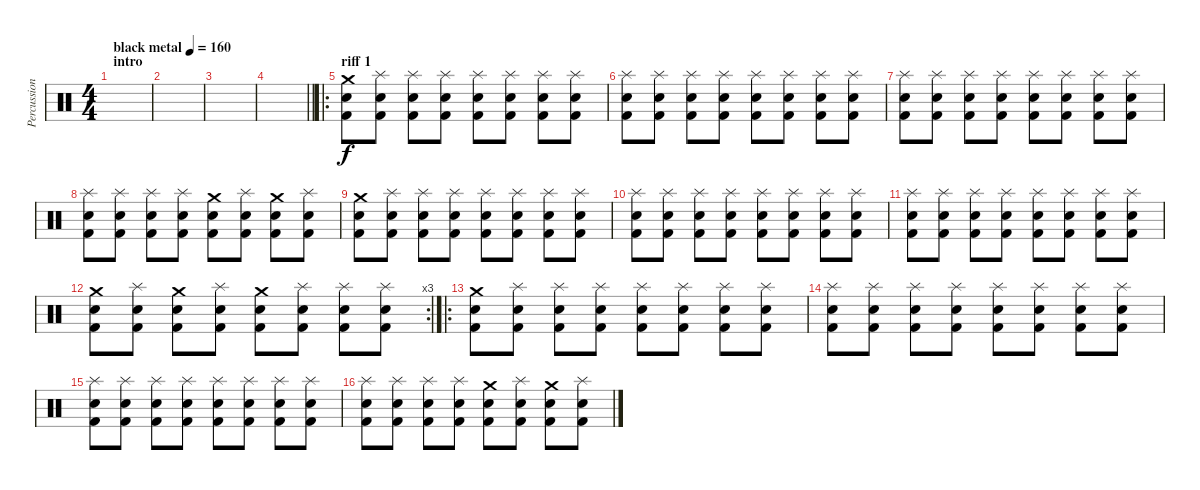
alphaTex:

\track ("Percussions" "Percussion") {instrument percussion}
\staff {score}
\articulation defaults
\ts (4 4)
\section ("" "intro")
\tempo (160 "black metal")
\clef neutral
\ks c
|
|
|
\barLineRight lightlight
|
\ro
\section ("" "riff 1")
("Crash medium (hit)" "Electric Snare (hit)" "Kick (hit) 2").8 ("Splash (hit)" "Electric Snare (hit)" "Kick (hit) 2").8 ("Splash (hit)" "Electric Snare (hit)" "Kick (hit) 2").8 ("Splash (hit)" "Electric Snare (hit)" "Kick (hit) 2").8 ("Splash (hit)" "Electric Snare (hit)" "Kick (hit) 2").8 ("Splash (hit)" "Electric Snare (hit)" "Kick (hit) 2").8 ("Splash (hit)" "Electric Snare (hit)" "Kick (hit) 2").8 ("Splash (hit)" "Electric Snare (hit)" "Kick (hit) 2").8 |
("Splash (hit)" "Electric Snare (hit)" "Kick (hit) 2").8 ("Splash (hit)" "Electric Snare (hit)" "Kick (hit) 2").8 ("Splash (hit)" "Electric Snare (hit)" "Kick (hit) 2").8 ("Splash (hit)" "Electric Snare (hit)" "Kick (hit) 2").8 ("Splash (hit)" "Electric Snare (hit)" "Kick (hit) 2").8 ("Splash (hit)" "Electric Snare (hit)" "Kick (hit) 2").8 ("Splash (hit)" "Electric Snare (hit)" "Kick (hit) 2").8 ("Splash (hit)" "Electric Snare (hit)" "Kick (hit) 2").8 |
("Splash (hit)" "Electric Snare (hit)" "Kick (hit) 2").8 ("Splash (hit)" "Electric Snare (hit)" "Kick (hit) 2").8 ("Splash (hit)" "Electric Snare (hit)" "Kick (hit) 2").8 ("Splash (hit)" "Electric Snare (hit)" "Kick (hit) 2").8 ("Splash (hit)" "Electric Snare (hit)" "Kick (hit) 2").8 ("Splash (hit)" "Electric Snare (hit)" "Kick (hit) 2").8 ("Splash (hit)" "Electric Snare (hit)" "Kick (hit) 2").8 ("Splash (hit)" "Electric Snare (hit)" "Kick (hit) 2").8 |
("Splash (hit)" "Electric Snare (hit)" "Kick (hit) 2").8 ("Splash (hit)" "Electric Snare (hit)" "Kick (hit) 2").8 ("Splash (hit)" "Electric Snare (hit)" "Kick (hit) 2").8 ("Splash (hit)" "Electric Snare (hit)" "Kick (hit) 2").8 ("Crash medium (hit)" "Electric Snare (hit)" "Kick (hit) 2").8 ("Splash (hit)" "Electric Snare (hit)" "Kick (hit) 2").8 ("Crash medium (hit)" "Electric Snare (hit)" "Kick (hit) 2").8 ("Splash (hit)" "Electric Snare (hit)" "Kick (hit) 2").8 |
("Crash medium (hit)" "Electric Snare (hit)" "Kick (hit) 2").8 ("Splash (hit)" "Electric Snare (hit)" "Kick (hit) 2").8 ("Splash (hit)" "Electric Snare (hit)" "Kick (hit) 2").8 ("Splash (hit)" "Electric Snare (hit)" "Kick (hit) 2").8 ("Splash (hit)" "Electric Snare (hit)" "Kick (hit) 2").8 ("Splash (hit)" "Electric Snare (hit)" "Kick (hit) 2").8 ("Splash (hit)" "Electric Snare (hit)" "Kick (hit) 2").8 ("Splash (hit)" "Electric Snare (hit)" "Kick (hit) 2").8 |
("Splash (hit)" "Electric Snare (hit)" "Kick (hit) 2").8 ("Splash (hit)" "Electric Snare (hit)" "Kick (hit) 2").8 ("Splash (hit)" "Electric Snare (hit)" "Kick (hit) 2").8 ("Splash (hit)" "Electric Snare (hit)" "Kick (hit) 2").8 ("Splash (hit)" "Electric Snare (hit)" "Kick (hit) 2").8 ("Splash (hit)" "Electric Snare (hit)" "Kick (hit) 2").8 ("Splash (hit)" "Electric Snare (hit)" "Kick (hit) 2").8 ("Splash (hit)" "Electric Snare (hit)" "Kick (hit) 2").8 |
("Splash (hit)" "Electric Snare (hit)" "Kick (hit) 2").8 ("Splash (hit)" "Electric Snare (hit)" "Kick (hit) 2").8 ("Splash (hit)" "Electric Snare (hit)" "Kick (hit) 2").8 ("Splash (hit)" "Electric Snare (hit)" "Kick (hit) 2").8 ("Splash (hit)" "Electric Snare (hit)" "Kick (hit) 2").8 ("Splash (hit)" "Electric Snare (hit)" "Kick (hit) 2").8 ("Splash (hit)" "Electric Snare (hit)" "Kick (hit) 2").8 ("Splash (hit)" "Electric Snare (hit)" "Kick (hit) 2").8 |
\rc 3
("Crash medium (hit)" "Electric Snare (hit)" "Kick (hit) 2").8 ("Splash (hit)" "Electric Snare (hit)" "Kick (hit) 2").8 ("Crash medium (hit)" "Electric Snare (hit)" "Kick (hit) 2").8 ("Splash (hit)" "Electric Snare (hit)" "Kick (hit) 2").8 ("Crash medium (hit)" "Electric Snare (hit)" "Kick (hit) 2").8 ("Splash (hit)" "Electric Snare (hit)" "Kick (hit) 2").8 ("Splash (hit)" "Electric Snare (hit)" "Kick (hit) 2").8 ("Splash (hit)" "Electric Snare (hit)" "Kick (hit) 2").8 |
\ro
("Crash medium (hit)" "Electric Snare (hit)" "Kick (hit) 2").8 ("Splash (hit)" "Electric Snare (hit)" "Kick (hit) 2").8 ("Splash (hit)" "Electric Snare (hit)" "Kick (hit) 2").8 ("Splash (hit)" "Electric Snare (hit)" "Kick (hit) 2").8 ("Splash (hit)" "Electric Snare (hit)" "Kick (hit) 2").8 ("Splash (hit)" "Electric Snare (hit)" "Kick (hit) 2").8 ("Splash (hit)" "Electric Snare (hit)" "Kick (hit) 2").8 ("Splash (hit)" "Electric Snare (hit)" "Kick (hit) 2").8 |
("Splash (hit)" "Electric Snare (hit)" "Kick (hit) 2").8 ("Splash (hit)" "Electric Snare (hit)" "Kick (hit) 2").8 ("Splash (hit)" "Electric Snare (hit)" "Kick (hit) 2").8 ("Splash (hit)" "Electric Snare (hit)" "Kick (hit) 2").8 ("Splash (hit)" "Electric Snare (hit)" "Kick (hit) 2").8 ("Splash (hit)" "Electric Snare (hit)" "Kick (hit) 2").8 ("Splash (hit)" "Electric Snare (hit)" "Kick (hit) 2").8 ("Splash (hit)" "Electric Snare (hit)" "Kick (hit) 2").8 |
("Splash (hit)" "Electric Snare (hit)" "Kick (hit) 2").8 ("Splash (hit)" "Electric Snare (hit)" "Kick (hit) 2").8 ("Splash (hit)" "Electric Snare (hit)" "Kick (hit) 2").8 ("Splash (hit)" "Electric Snare (hit)" "Kick (hit) 2").8 ("Splash (hit)" "Electric Snare (hit)" "Kick (hit) 2").8 ("Splash (hit)" "Electric Snare (hit)" "Kick (hit) 2").8 ("Splash (hit)" "Electric Snare (hit)" "Kick (hit) 2").8 ("Splash (hit)" "Electric Snare (hit)" "Kick (hit) 2").8 |
("Splash (hit)" "Electric Snare (hit)" "Kick (hit) 2").8 ("Splash (hit)" "Electric Snare (hit)" "Kick (hit) 2").8 ("Splash (hit)" "Electric Snare (hit)" "Kick (hit) 2").8 ("Splash (hit)" "Electric Snare (hit)" "Kick (hit) 2").8 ("Crash medium (hit)" "Electric Snare (hit)" "Kick (hit) 2").8 ("Splash (hit)" "Electric Snare (hit)" "Kick (hit) 2").8 ("Crash medium (hit)" "Electric Snare (hit)" "Kick (hit) 2").8 ("Splash (hit)" "Electric Snare (hit)" "Kick (hit) 2").8
